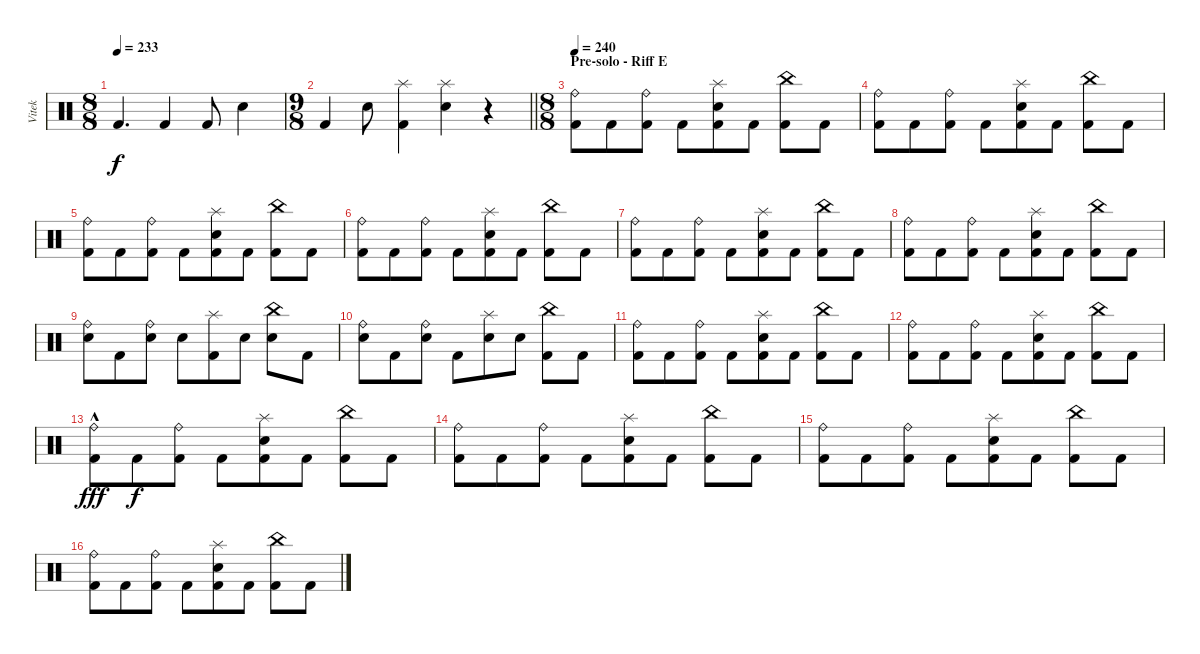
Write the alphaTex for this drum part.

\track ("Vitek" "Vitek") {instrument percussion}
\staff {score}
\articulation defaults
\ts (8 8)
\tempo 233
\clef neutral
\ks c "Kick (hit) 2".4{d dy f} "Kick (hit) 2".4 "Kick (hit) 2".8 "Electric Snare (hit)".4
|
\ts (9 8)
\barLineRight lightlight "Kick (hit) 2".4 "Electric Snare (hit)".8
("Splash (hit)" "Kick (hit) 2").4 ("Splash (hit)" "Electric Snare (hit)").4 r.4 |
\ts (8 8)
\section ("" "Pre-solo - Riff E")
\tempo 240
("Ride (bell)" "Kick (hit) 2").8 "Kick (hit) 2".8 ("Ride (bell)" "Kick (hit) 2").8 "Kick (hit) 2".8 ("Splash (hit)" "Electric Snare (hit)" "Kick (hit) 2").8 "Kick (hit) 2".8 ("China (hit)" "Kick (hit) 2").8 "Kick (hit) 2".8 |
("Ride (bell)" "Kick (hit) 2").8 "Kick (hit) 2".8 ("Ride (bell)" "Kick (hit) 2").8 "Kick (hit) 2".8 ("Splash (hit)" "Electric Snare (hit)" "Kick (hit) 2").8 "Kick (hit) 2".8 ("China (hit)" "Kick (hit) 2").8 "Kick (hit) 2".8 |
("Ride (bell)" "Kick (hit) 2").8 "Kick (hit) 2".8 ("Ride (bell)" "Kick (hit) 2").8 "Kick (hit) 2".8 ("Splash (hit)" "Electric Snare (hit)" "Kick (hit) 2").8 "Kick (hit) 2".8 ("China (hit)" "Kick (hit) 2").8 "Kick (hit) 2".8 |
("Ride (bell)" "Kick (hit) 2").8 "Kick (hit) 2".8 ("Ride (bell)" "Kick (hit) 2").8 "Kick (hit) 2".8 ("Splash (hit)" "Electric Snare (hit)" "Kick (hit) 2").8 "Kick (hit) 2".8 ("China (hit)" "Kick (hit) 2").8 "Kick (hit) 2".8 |
("Ride (bell)" "Kick (hit) 2").8 "Kick (hit) 2".8 ("Ride (bell)" "Kick (hit) 2").8 "Kick (hit) 2".8 ("Splash (hit)" "Electric Snare (hit)" "Kick (hit) 2").8 "Kick (hit) 2".8 ("China (hit)" "Kick (hit) 2").8 "Kick (hit) 2".8 |
("Ride (bell)" "Kick (hit) 2").8 "Kick (hit) 2".8 ("Ride (bell)" "Kick (hit) 2").8 "Kick (hit) 2".8 ("Splash (hit)" "Electric Snare (hit)" "Kick (hit) 2").8 "Kick (hit) 2".8 ("China (hit)" "Kick (hit) 2").8 "Kick (hit) 2".8 |
("Ride (bell)" "Electric Snare (hit)").8 "Kick (hit) 2".8 ("Ride (bell)" "Electric Snare (hit)").8 "Electric Snare (hit)".8 ("Splash (hit)" "Kick (hit) 2").8 "Electric Snare (hit)".8 ("China (hit)" "Electric Snare (hit)").8 "Kick (hit) 2".8 |
("Ride (bell)" "Electric Snare (hit)").8 "Kick (hit) 2".8 ("Ride (bell)" "Electric Snare (hit)").8 "Kick (hit) 2".8 ("Splash (hit)" "Electric Snare (hit)").8 "Electric Snare (hit)".8 ("China (hit)" "Kick (hit) 2").8 "Kick (hit) 2".8 |
("Ride (bell)" "Kick (hit) 2").8 "Kick (hit) 2".8 ("Ride (bell)" "Kick (hit) 2").8 "Kick (hit) 2".8 ("Splash (hit)" "Electric Snare (hit)" "Kick (hit) 2").8 "Kick (hit) 2".8 ("China (hit)" "Kick (hit) 2").8 "Kick (hit) 2".8 |
("Ride (bell)" "Kick (hit) 2").8 "Kick (hit) 2".8 ("Ride (bell)" "Kick (hit) 2").8 "Kick (hit) 2".8 ("Splash (hit)" "Electric Snare (hit)" "Kick (hit) 2").8 "Kick (hit) 2".8 ("China (hit)" "Kick (hit) 2").8 "Kick (hit) 2".8 |
("Ride (bell)"{hac} "Kick (hit) 2").8{dy fff} "Kick (hit) 2".8{dy f} ("Ride (bell)" "Kick (hit) 2").8 "Kick (hit) 2".8 ("Splash (hit)" "Electric Snare (hit)" "Kick (hit) 2").8 "Kick (hit) 2".8 ("China (hit)" "Kick (hit) 2").8 "Kick (hit) 2".8 |
("Ride (bell)" "Kick (hit) 2").8 "Kick (hit) 2".8 ("Ride (bell)" "Kick (hit) 2").8 "Kick (hit) 2".8 ("Splash (hit)" "Electric Snare (hit)" "Kick (hit) 2").8 "Kick (hit) 2".8 ("China (hit)" "Kick (hit) 2").8 "Kick (hit) 2".8 |
("Ride (bell)" "Kick (hit) 2").8 "Kick (hit) 2".8 ("Ride (bell)" "Kick (hit) 2").8 "Kick (hit) 2".8 ("Splash (hit)" "Electric Snare (hit)" "Kick (hit) 2").8 "Kick (hit) 2".8 ("China (hit)" "Kick (hit) 2").8 "Kick (hit) 2".8 |
("Ride (bell)" "Kick (hit) 2").8 "Kick (hit) 2".8 ("Ride (bell)" "Kick (hit) 2").8 "Kick (hit) 2".8 ("Splash (hit)" "Electric Snare (hit)" "Kick (hit) 2").8 "Kick (hit) 2".8 ("China (hit)" "Kick (hit) 2").8 "Kick (hit) 2".8
